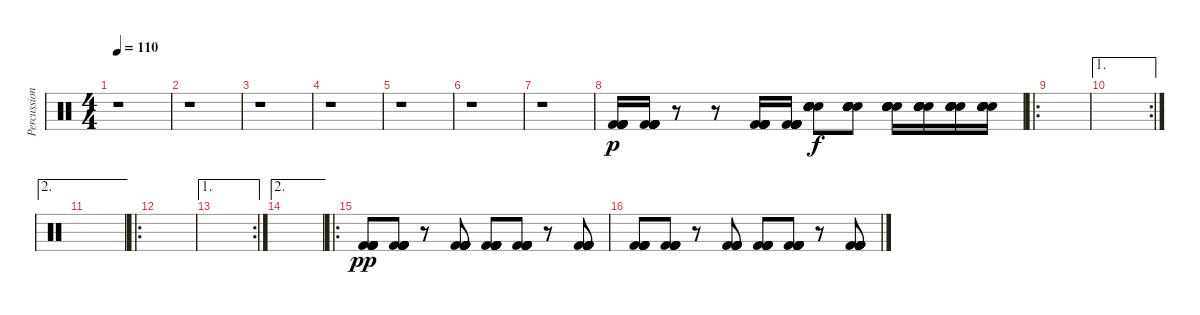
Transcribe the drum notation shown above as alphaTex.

\track ("Percussion 3" "Percussion") {instrument percussion}
\staff {score}
\articulation defaults
\ts (4 4)
\tempo 110
\clef neutral
\ks c
r.1{dy p} |
r.1 |
r.1 |
r.1 |
r.1 |
r.1 |
r.1 |
("Kick (hit) 2" "Kick (hit) 2" "Kick (hit) 2" "Kick (hit) 2" "Kick (hit) 2" "Kick (hit) 2").16 ("Kick (hit) 2" "Kick (hit) 2" "Kick (hit) 2" "Kick (hit) 2" "Kick (hit) 2" "Kick (hit) 2").16 r.8 r.8 ("Kick (hit) 2" "Kick (hit) 2" "Kick (hit) 2" "Kick (hit) 2" "Kick (hit) 2" "Kick (hit) 2").16 ("Kick (hit) 2" "Kick (hit) 2" "Kick (hit) 2" "Kick (hit) 2" "Kick (hit) 2" "Kick (hit) 2").16 ("Electric Snare (hit)" "Electric Snare (hit)" "Electric Snare (hit)" "Electric Snare (hit)" "Electric Snare (hit)" "Electric Snare (hit)").8{dy f} ("Electric Snare (hit)" "Electric Snare (hit)" "Electric Snare (hit)" "Electric Snare (hit)" "Electric Snare (hit)" "Electric Snare (hit)").8 ("Electric Snare (hit)" "Electric Snare (hit)" "Electric Snare (hit)" "Electric Snare (hit)" "Electric Snare (hit)" "Electric Snare (hit)").16 ("Electric Snare (hit)" "Electric Snare (hit)" "Electric Snare (hit)" "Electric Snare (hit)" "Electric Snare (hit)" "Electric Snare (hit)").16 ("Electric Snare (hit)" "Electric Snare (hit)" "Electric Snare (hit)" "Electric Snare (hit)" "Electric Snare (hit)" "Electric Snare (hit)").16 ("Electric Snare (hit)" "Electric Snare (hit)" "Electric Snare (hit)" "Electric Snare (hit)" "Electric Snare (hit)" "Electric Snare (hit)").16 |
\ro
|
\ae 1
\rc 2
|
\ae 2
|
\ro
|
\ae 1
\rc 2
|
\ae 2
|
\ro
("Kick (hit) 2" "Kick (hit) 2" "Kick (hit) 2" "Kick (hit) 2" "Kick (hit) 2" "Kick (hit) 2").8{dy pp} ("Kick (hit) 2" "Kick (hit) 2" "Kick (hit) 2" "Kick (hit) 2" "Kick (hit) 2" "Kick (hit) 2").8 r.8 ("Kick (hit) 2" "Kick (hit) 2" "Kick (hit) 2" "Kick (hit) 2" "Kick (hit) 2" "Kick (hit) 2").8 ("Kick (hit) 2" "Kick (hit) 2" "Kick (hit) 2" "Kick (hit) 2" "Kick (hit) 2" "Kick (hit) 2").8 ("Kick (hit) 2" "Kick (hit) 2" "Kick (hit) 2" "Kick (hit) 2" "Kick (hit) 2" "Kick (hit) 2").8 r.8 ("Kick (hit) 2" "Kick (hit) 2" "Kick (hit) 2" "Kick (hit) 2" "Kick (hit) 2" "Kick (hit) 2").8 |
("Kick (hit) 2" "Kick (hit) 2" "Kick (hit) 2" "Kick (hit) 2" "Kick (hit) 2" "Kick (hit) 2").8 ("Kick (hit) 2" "Kick (hit) 2" "Kick (hit) 2" "Kick (hit) 2" "Kick (hit) 2" "Kick (hit) 2").8 r.8 ("Kick (hit) 2" "Kick (hit) 2" "Kick (hit) 2" "Kick (hit) 2" "Kick (hit) 2" "Kick (hit) 2").8 ("Kick (hit) 2" "Kick (hit) 2" "Kick (hit) 2" "Kick (hit) 2" "Kick (hit) 2" "Kick (hit) 2").8 ("Kick (hit) 2" "Kick (hit) 2" "Kick (hit) 2" "Kick (hit) 2" "Kick (hit) 2" "Kick (hit) 2").8 r.8 ("Kick (hit) 2" "Kick (hit) 2" "Kick (hit) 2" "Kick (hit) 2" "Kick (hit) 2" "Kick (hit) 2").8
